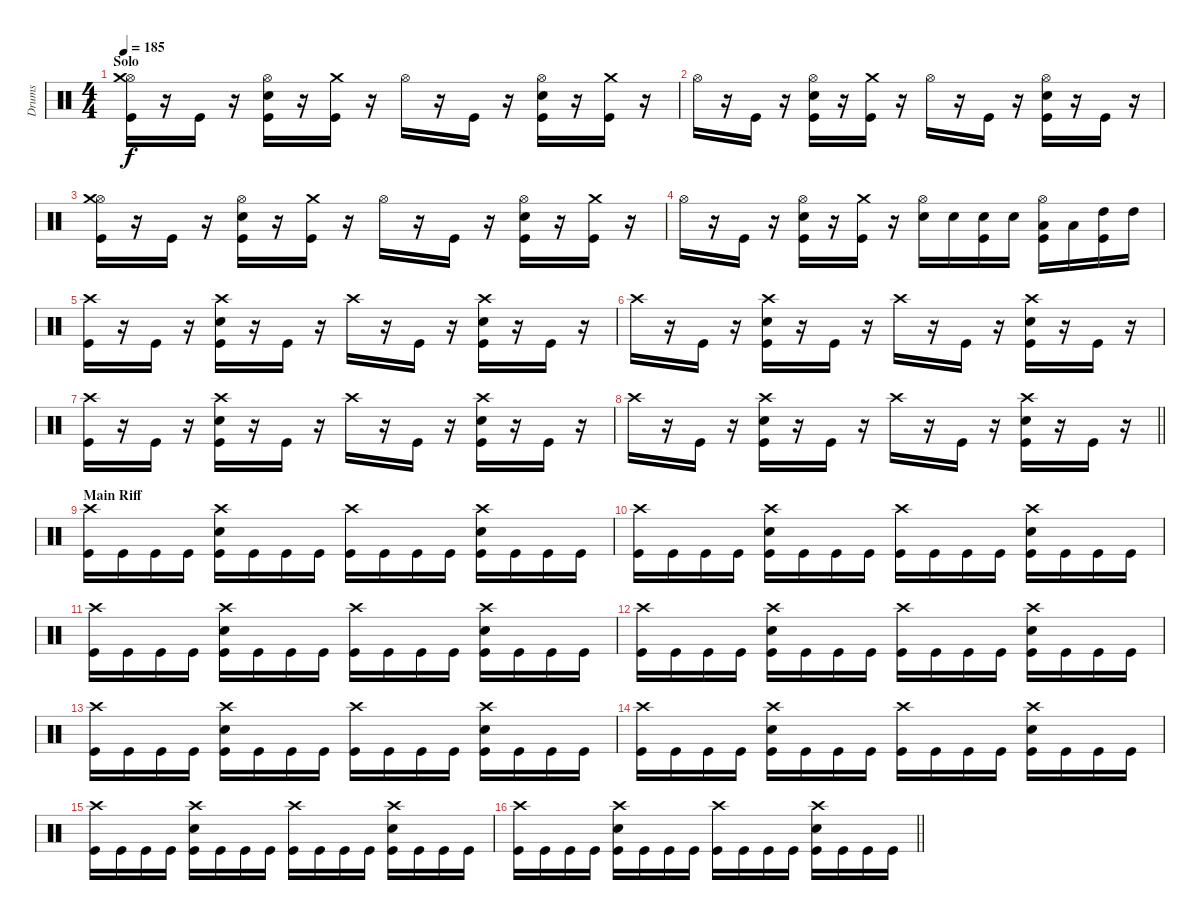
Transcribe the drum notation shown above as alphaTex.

\track ("Drums" "Drums") {instrument percussion}
\staff {score}
\articulation defaults
\ts (4 4)
\section ("" "Solo")
\tempo 185
\clef neutral
\ks c
("Hi-Hat (open)" "Crash medium (hit)" "Kick (hit)").16{dy f} r.16 "Kick (hit)".16 r.16 ("Hi-Hat (open)" "Snare (hit) 2" "Kick (hit)").16 r.16 ("Crash medium (hit)" "Kick (hit)").16 r.16 "Hi-Hat (open)".16 r.16 "Kick (hit)".16 r.16 ("Hi-Hat (open)" "Snare (hit) 2" "Kick (hit)").16 r.16 ("Crash medium (hit)" "Kick (hit)").16 r.16 |
"Hi-Hat (open)".16 r.16 "Kick (hit)".16 r.16 ("Hi-Hat (open)" "Snare (hit) 2" "Kick (hit)").16 r.16 ("Crash medium (hit)" "Kick (hit)").16 r.16 "Hi-Hat (open)".16 r.16 "Kick (hit)".16 r.16 ("Hi-Hat (open)" "Snare (hit) 2" "Kick (hit)").16 r.16 "Kick (hit)".16 r.16 |
("Hi-Hat (open)" "Crash medium (hit)" "Kick (hit)").16 r.16 "Kick (hit)".16 r.16 ("Hi-Hat (open)" "Snare (hit) 2" "Kick (hit)").16 r.16 ("Crash medium (hit)" "Kick (hit)").16 r.16 "Hi-Hat (open)".16 r.16 "Kick (hit)".16 r.16 ("Hi-Hat (open)" "Snare (hit) 2" "Kick (hit)").16 r.16 ("Crash medium (hit)" "Kick (hit)").16 r.16 |
"Hi-Hat (open)".16 r.16 "Kick (hit)".16 r.16 ("Hi-Hat (open)" "Snare (hit) 2" "Kick (hit)").16 r.16 ("Crash medium (hit)" "Kick (hit)").16 r.16 ("Hi-Hat (open)" "Snare (hit) 2").16 "Snare (hit) 2".16 ("Snare (hit) 2" "Kick (hit)").16 "Snare (hit) 2".16 ("Hi-Hat (open)" "Low Tom (hit)" "Kick (hit)").16 "Low Tom (hit)".16 ("High Tom (hit)" "Kick (hit)").16 "High Tom (hit)".16 |
("Crash high (hit)" "Kick (hit)").16 r.16 "Kick (hit)".16 r.16 ("Crash high (hit)" "Snare (hit) 2" "Kick (hit)").16 r.16 "Kick (hit)".16 r.16 "Crash high (hit)".16 r.16 "Kick (hit)".16 r.16 ("Crash high (hit)" "Snare (hit) 2" "Kick (hit)").16 r.16 "Kick (hit)".16 r.16 |
"Crash high (hit)".16 r.16 "Kick (hit)".16 r.16 ("Crash high (hit)" "Snare (hit) 2" "Kick (hit)").16 r.16 "Kick (hit)".16 r.16 "Crash high (hit)".16 r.16 "Kick (hit)".16 r.16 ("Crash high (hit)" "Snare (hit) 2" "Kick (hit)").16 r.16 "Kick (hit)".16 r.16 |
("Crash high (hit)" "Kick (hit)").16 r.16 "Kick (hit)".16 r.16 ("Crash high (hit)" "Snare (hit) 2" "Kick (hit)").16 r.16 "Kick (hit)".16 r.16 "Crash high (hit)".16 r.16 "Kick (hit)".16 r.16 ("Crash high (hit)" "Snare (hit) 2" "Kick (hit)").16 r.16 "Kick (hit)".16 r.16 |
\barLineRight lightlight "Crash high (hit)".16
r.16 "Kick (hit)".16 r.16 ("Crash high (hit)" "Snare (hit) 2" "Kick (hit)").16 r.16 "Kick (hit)".16 r.16 "Crash high (hit)".16 r.16 "Kick (hit)".16 r.16 ("Crash high (hit)" "Snare (hit) 2" "Kick (hit)").16 r.16 "Kick (hit)".16 r.16 |
\section ("" "Main Riff")
("Crash high (hit)" "Kick (hit)").16 "Kick (hit)".16 "Kick (hit)".16 "Kick (hit)".16 ("Crash high (hit)" "Snare (hit) 2" "Kick (hit)").16 "Kick (hit)".16 "Kick (hit)".16 "Kick (hit)".16 ("Crash high (hit)" "Kick (hit)").16 "Kick (hit)".16 "Kick (hit)".16 "Kick (hit)".16 ("Crash high (hit)" "Snare (hit) 2" "Kick (hit)").16 "Kick (hit)".16 "Kick (hit)".16 "Kick (hit)".16 |
("Crash high (hit)" "Kick (hit)").16 "Kick (hit)".16 "Kick (hit)".16 "Kick (hit)".16 ("Crash high (hit)" "Snare (hit) 2" "Kick (hit)").16 "Kick (hit)".16 "Kick (hit)".16 "Kick (hit)".16 ("Crash high (hit)" "Kick (hit)").16 "Kick (hit)".16 "Kick (hit)".16 "Kick (hit)".16 ("Crash high (hit)" "Snare (hit) 2" "Kick (hit)").16 "Kick (hit)".16 "Kick (hit)".16 "Kick (hit)".16 |
("Crash high (hit)" "Kick (hit)").16 "Kick (hit)".16 "Kick (hit)".16 "Kick (hit)".16 ("Crash high (hit)" "Snare (hit) 2" "Kick (hit)").16 "Kick (hit)".16 "Kick (hit)".16 "Kick (hit)".16 ("Crash high (hit)" "Kick (hit)").16 "Kick (hit)".16 "Kick (hit)".16 "Kick (hit)".16 ("Crash high (hit)" "Snare (hit) 2" "Kick (hit)").16 "Kick (hit)".16 "Kick (hit)".16 "Kick (hit)".16 |
("Crash high (hit)" "Kick (hit)").16 "Kick (hit)".16 "Kick (hit)".16 "Kick (hit)".16 ("Crash high (hit)" "Snare (hit) 2" "Kick (hit)").16 "Kick (hit)".16 "Kick (hit)".16 "Kick (hit)".16 ("Crash high (hit)" "Kick (hit)").16 "Kick (hit)".16 "Kick (hit)".16 "Kick (hit)".16 ("Crash high (hit)" "Snare (hit) 2" "Kick (hit)").16 "Kick (hit)".16 "Kick (hit)".16 "Kick (hit)".16 |
("Crash high (hit)" "Kick (hit)").16 "Kick (hit)".16 "Kick (hit)".16 "Kick (hit)".16 ("Crash high (hit)" "Snare (hit) 2" "Kick (hit)").16 "Kick (hit)".16 "Kick (hit)".16 "Kick (hit)".16 ("Crash high (hit)" "Kick (hit)").16 "Kick (hit)".16 "Kick (hit)".16 "Kick (hit)".16 ("Crash high (hit)" "Snare (hit) 2" "Kick (hit)").16 "Kick (hit)".16 "Kick (hit)".16 "Kick (hit)".16 |
("Crash high (hit)" "Kick (hit)").16 "Kick (hit)".16 "Kick (hit)".16 "Kick (hit)".16 ("Crash high (hit)" "Snare (hit) 2" "Kick (hit)").16 "Kick (hit)".16 "Kick (hit)".16 "Kick (hit)".16 ("Crash high (hit)" "Kick (hit)").16 "Kick (hit)".16 "Kick (hit)".16 "Kick (hit)".16 ("Crash high (hit)" "Snare (hit) 2" "Kick (hit)").16 "Kick (hit)".16 "Kick (hit)".16 "Kick (hit)".16 |
("Crash high (hit)" "Kick (hit)").16 "Kick (hit)".16 "Kick (hit)".16 "Kick (hit)".16 ("Crash high (hit)" "Snare (hit) 2" "Kick (hit)").16 "Kick (hit)".16 "Kick (hit)".16 "Kick (hit)".16 ("Crash high (hit)" "Kick (hit)").16 "Kick (hit)".16 "Kick (hit)".16 "Kick (hit)".16 ("Crash high (hit)" "Snare (hit) 2" "Kick (hit)").16 "Kick (hit)".16 "Kick (hit)".16 "Kick (hit)".16 |
\barLineRight lightlight
("Crash high (hit)" "Kick (hit)").16 "Kick (hit)".16 "Kick (hit)".16 "Kick (hit)".16 ("Crash high (hit)" "Snare (hit) 2" "Kick (hit)").16 "Kick (hit)".16 "Kick (hit)".16 "Kick (hit)".16 ("Crash high (hit)" "Kick (hit)").16 "Kick (hit)".16 "Kick (hit)".16 "Kick (hit)".16 ("Crash high (hit)" "Snare (hit) 2" "Kick (hit)").16 "Kick (hit)".16 "Kick (hit)".16 "Kick (hit)".16
